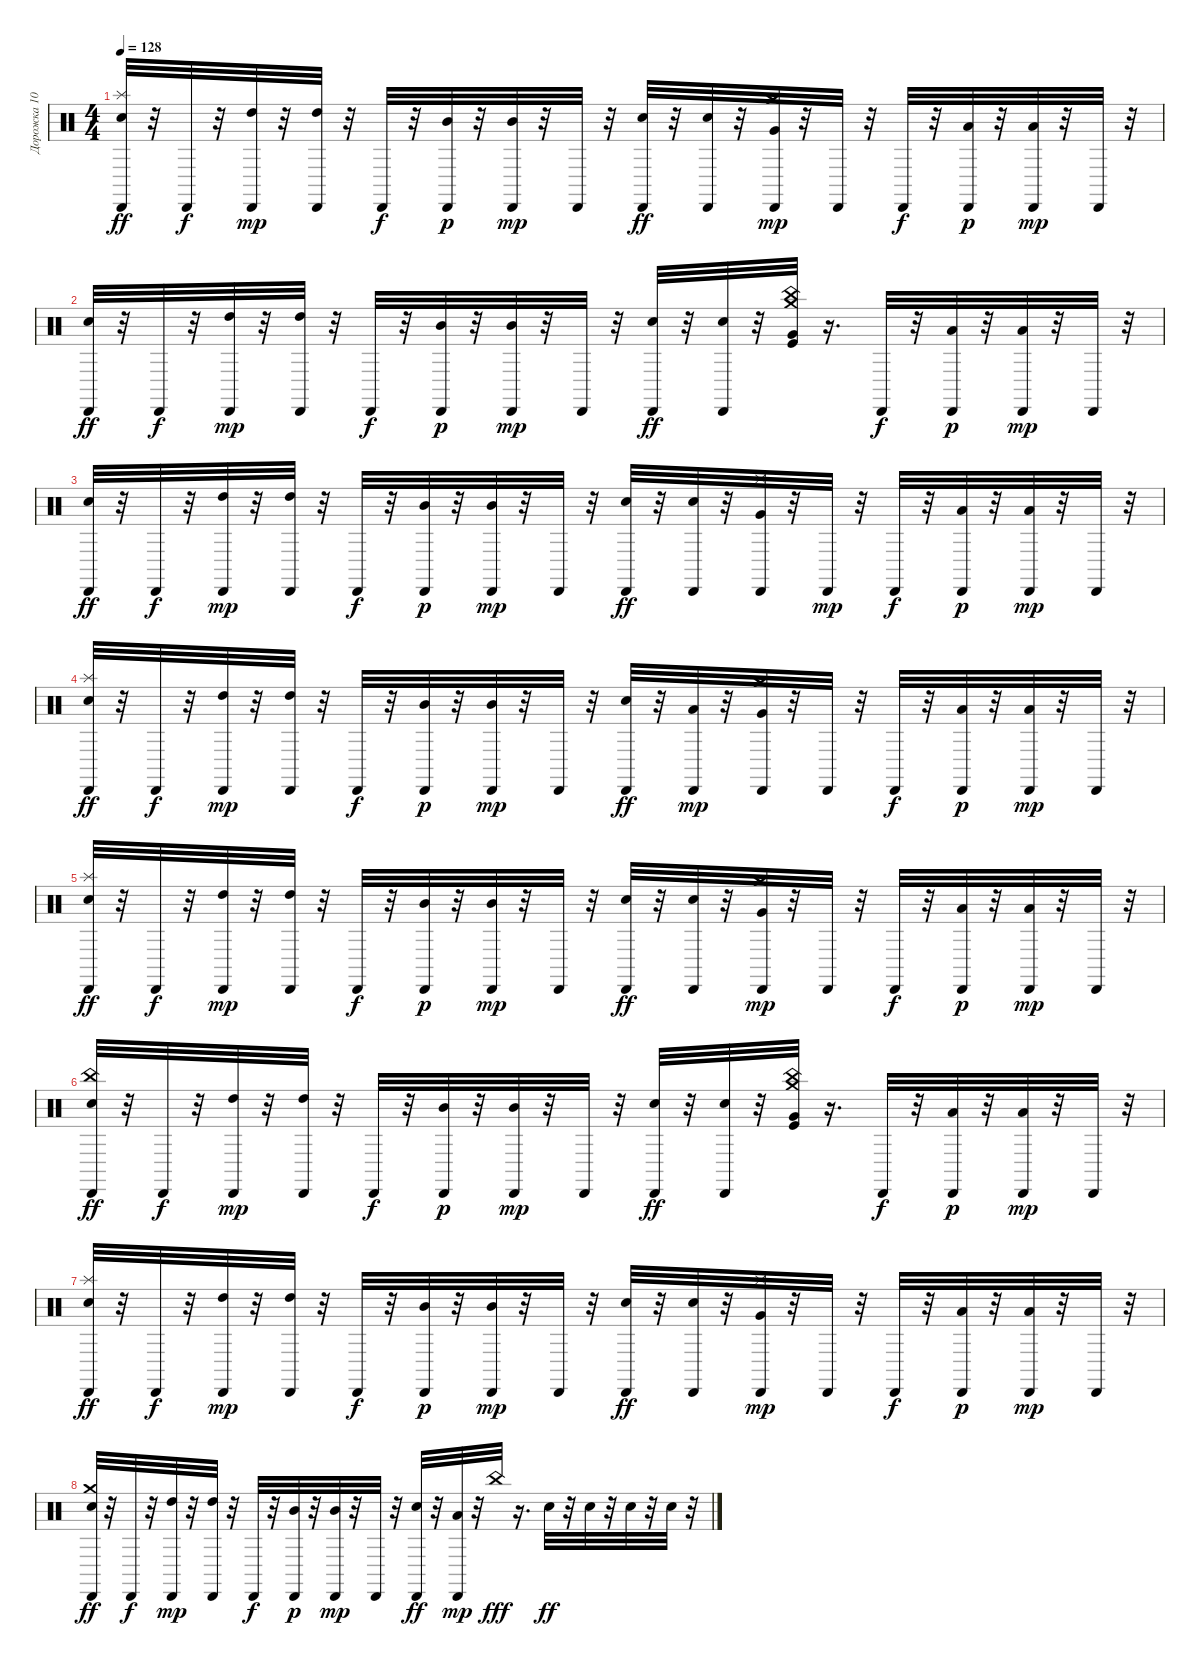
\track ("Дорожка 10" "Дорожка 10") {instrument percussion}
\staff {score}
\articulation defaults
\ts (4 4)
\tempo 128
\clef neutral
\ks c
("Electric Snare (hit)" "Cabasa (hit)" "Splash (hit)").32{dy ff} r.32 "Cabasa (hit)".32{dy f} r.32 ("High Tom (hit)" "Cabasa (hit)").32{dy mp} r.32 ("High Tom (hit)" "Cabasa (hit)").32 r.32 "Cabasa (hit)".32{dy f} r.32 ("Mid Tom (hit)" "Cabasa (hit)").32{dy p} r.32 ("Cabasa (hit)" "Mid Tom (hit)").32{dy mp} r.32 "Cabasa (hit)".32 r.32 ("Cabasa (hit)" "Electric Snare (hit)").32{dy ff} r.32 ("Electric Snare (hit)" "Cabasa (hit)").32 r.32 ("Crash medium (hit)" "Cabasa (hit)" "Very Low Tom (hit)").32{dy mp} r.32 "Cabasa (hit)".32 r.32 "Cabasa (hit)".32{dy f} r.32 ("Low Floor Tom (hit)" "Cabasa (hit)").32{dy p} r.32 ("Low Floor Tom (hit)" "Cabasa (hit)").32{dy mp} r.32 "Cabasa (hit)".32 r.32 |
("Cabasa (hit)" "Electric Snare (hit)").32{dy ff} r.32 "Cabasa (hit)".32{dy f} r.32 ("Cabasa (hit)" "High Tom (hit)").32{dy mp} r.32 ("Cabasa (hit)" "High Tom (hit)").32 r.32 "Cabasa (hit)".32{dy f} r.32 ("Cabasa (hit)" "Mid Tom (hit)").32{dy p} r.32 ("Cabasa (hit)" "Mid Tom (hit)").32{dy mp} r.32 "Cabasa (hit)".32 r.32 ("Cabasa (hit)" "Electric Snare (hit)").32{dy ff} r.32 ("Electric Snare (hit)" "Cabasa (hit)").32 r.32 ("China (hit)" "Crash medium (hit)" "Very Low Tom (hit)" "Kick (hit)").32 r.16{d} "Cabasa (hit)".32{dy f} r.32 ("Cabasa (hit)" "Low Floor Tom (hit)").32{dy p} r.32 ("Low Floor Tom (hit)" "Cabasa (hit)").32{dy mp} r.32 "Cabasa (hit)".32 r.32 |
("Electric Snare (hit)" "Cabasa (hit)").32{dy ff} r.32 "Cabasa (hit)".32{dy f} r.32 ("High Tom (hit)" "Cabasa (hit)").32{dy mp} r.32 ("Cabasa (hit)" "High Tom (hit)").32 r.32 "Cabasa (hit)".32{dy f} r.32 ("Cabasa (hit)" "Mid Tom (hit)").32{dy p} r.32 ("Cabasa (hit)" "Mid Tom (hit)").32{dy mp} r.32 "Cabasa (hit)".32 r.32 ("Electric Snare (hit)" "Cabasa (hit)").32{dy ff} r.32 ("Cabasa (hit)" "Electric Snare (hit)").32 r.32 ("Cabasa (hit)" "Very Low Tom (hit)" "Splash (hit)").32 r.32 "Cabasa (hit)".32{dy mp} r.32 "Cabasa (hit)".32{dy f} r.32 ("Cabasa (hit)" "Low Floor Tom (hit)").32{dy p} r.32 ("Cabasa (hit)" "Low Floor Tom (hit)").32{dy mp} r.32 "Cabasa (hit)".32 r.32 |
("Cabasa (hit)" "Splash (hit)" "Electric Snare (hit)").32{dy ff} r.32 "Cabasa (hit)".32{dy f} r.32 ("Cabasa (hit)" "High Tom (hit)").32{dy mp} r.32 ("High Tom (hit)" "Cabasa (hit)").32 r.32 "Cabasa (hit)".32{dy f} r.32 ("Cabasa (hit)" "Mid Tom (hit)").32{dy p} r.32 ("Cabasa (hit)" "Mid Tom (hit)").32{dy mp} r.32 "Cabasa (hit)".32 r.32 ("Cabasa (hit)" "Electric Snare (hit)").32{dy ff} r.32 ("Low Tom (hit)" "Cabasa (hit)").32{dy mp} r.32 ("Crash medium (hit)" "Very Low Tom (hit)" "Cabasa (hit)").32 r.32 "Cabasa (hit)".32 r.32 "Cabasa (hit)".32{dy f} r.32 ("Cabasa (hit)" "Low Floor Tom (hit)").32{dy p} r.32 ("Cabasa (hit)" "Low Floor Tom (hit)").32{dy mp} r.32 "Cabasa (hit)".32 r.32 |
("Splash (hit)" "Cabasa (hit)" "Electric Snare (hit)").32{dy ff} r.32 "Cabasa (hit)".32{dy f} r.32 ("Cabasa (hit)" "High Tom (hit)").32{dy mp} r.32 ("Cabasa (hit)" "High Tom (hit)").32 r.32 "Cabasa (hit)".32{dy f} r.32 ("Mid Tom (hit)" "Cabasa (hit)").32{dy p} r.32 ("Mid Tom (hit)" "Cabasa (hit)").32{dy mp} r.32 "Cabasa (hit)".32 r.32 ("Electric Snare (hit)" "Cabasa (hit)").32{dy ff} r.32 ("Cabasa (hit)" "Electric Snare (hit)").32 r.32 ("Crash medium (hit)" "Very Low Tom (hit)" "Cabasa (hit)").32{dy mp} r.32 "Cabasa (hit)".32 r.32 "Cabasa (hit)".32{dy f} r.32 ("Low Floor Tom (hit)" "Cabasa (hit)").32{dy p} r.32 ("Cabasa (hit)" "Low Floor Tom (hit)").32{dy mp} r.32 "Cabasa (hit)".32 r.32 |
("Cabasa (hit)" "Electric Snare (hit)" "China (hit)").32{dy ff} r.32 "Cabasa (hit)".32{dy f} r.32 ("Cabasa (hit)" "High Tom (hit)").32{dy mp} r.32 ("Cabasa (hit)" "High Tom (hit)").32 r.32 "Cabasa (hit)".32{dy f} r.32 ("Cabasa (hit)" "Mid Tom (hit)").32{dy p} r.32 ("Cabasa (hit)" "Mid Tom (hit)").32{dy mp} r.32 "Cabasa (hit)".32 r.32 ("Cabasa (hit)" "Electric Snare (hit)").32{dy ff} r.32 ("Electric Snare (hit)" "Cabasa (hit)").32 r.32 ("China (hit)" "Crash medium (hit)" "Very Low Tom (hit)" "Kick (hit)").32 r.16{d} "Cabasa (hit)".32{dy f} r.32 ("Low Floor Tom (hit)" "Cabasa (hit)").32{dy p} r.32 ("Cabasa (hit)" "Low Floor Tom (hit)").32{dy mp} r.32 "Cabasa (hit)".32 r.32 |
("Electric Snare (hit)" "Cabasa (hit)" "Splash (hit)").32{dy ff} r.32 "Cabasa (hit)".32{dy f} r.32 ("High Tom (hit)" "Cabasa (hit)").32{dy mp} r.32 ("High Tom (hit)" "Cabasa (hit)").32 r.32 "Cabasa (hit)".32{dy f} r.32 ("Mid Tom (hit)" "Cabasa (hit)").32{dy p} r.32 ("Cabasa (hit)" "Mid Tom (hit)").32{dy mp} r.32 "Cabasa (hit)".32 r.32 ("Electric Snare (hit)" "Cabasa (hit)").32{dy ff} r.32 ("Electric Snare (hit)" "Cabasa (hit)").32 r.32 ("Splash (hit)" "Very Low Tom (hit)" "Cabasa (hit)").32{dy mp} r.32 "Cabasa (hit)".32 r.32 "Cabasa (hit)".32{dy f} r.32 ("Low Floor Tom (hit)" "Cabasa (hit)").32{dy p} r.32 ("Cabasa (hit)" "Low Floor Tom (hit)").32{dy mp} r.32 "Cabasa (hit)".32 r.32 |
("Crash medium (hit)" "Cabasa (hit)" "Electric Snare (hit)").32{dy ff} r.32 "Cabasa (hit)".32{dy f} r.32 ("High Tom (hit)" "Cabasa (hit)").32{dy mp} r.32 ("Cabasa (hit)" "High Tom (hit)").32 r.32 "Cabasa (hit)".32{dy f} r.32 ("Mid Tom (hit)" "Cabasa (hit)").32{dy p} r.32 ("Mid Tom (hit)" "Cabasa (hit)").32{dy mp} r.32 "Cabasa (hit)".32 r.32 ("Electric Snare (hit)" "Cabasa (hit)").32{dy ff} r.32 ("Low Tom (hit)" "Cabasa (hit)").32{dy mp} r.32 "China (hit)".32{dy fff} r.16{d} "Electric Snare (hit)".32{dy ff} r.32 "Electric Snare (hit)".32 r.32 "Electric Snare (hit)".32 r.32 "Electric Snare (hit)".32 r.32
